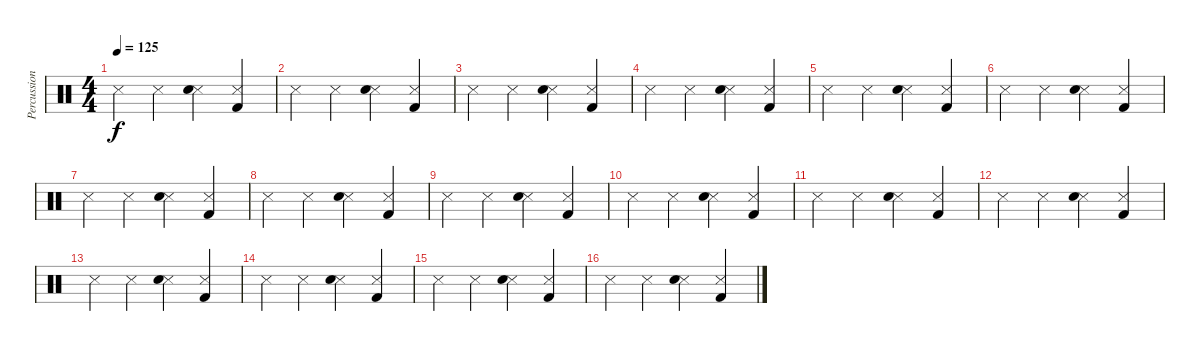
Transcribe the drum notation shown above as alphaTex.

\track ("Percussion" "Percussion") {instrument percussion}
\staff {score}
\articulation defaults
\ts (4 4)
\tempo 125
\clef neutral
\ks c "Snare (side stick) 3".4{dy f} "Snare (side stick) 3".4
("Snare (side stick) 3" "Electric Snare (hit)").4 ("Snare (side stick) 3" "Kick (hit) 2").4 |
"Snare (side stick) 3".4 "Snare (side stick) 3".4 ("Snare (side stick) 3" "Electric Snare (hit)").4 ("Snare (side stick) 3" "Kick (hit) 2").4 |
"Snare (side stick) 3".4 "Snare (side stick) 3".4 ("Snare (side stick) 3" "Electric Snare (hit)").4 ("Snare (side stick) 3" "Kick (hit) 2").4 |
"Snare (side stick) 3".4 "Snare (side stick) 3".4 ("Snare (side stick) 3" "Electric Snare (hit)").4 ("Snare (side stick) 3" "Kick (hit) 2").4 |
"Snare (side stick) 3".4 "Snare (side stick) 3".4 ("Snare (side stick) 3" "Electric Snare (hit)").4 ("Snare (side stick) 3" "Kick (hit) 2").4 |
"Snare (side stick) 3".4 "Snare (side stick) 3".4 ("Snare (side stick) 3" "Electric Snare (hit)").4 ("Snare (side stick) 3" "Kick (hit) 2").4 |
"Snare (side stick) 3".4 "Snare (side stick) 3".4 ("Snare (side stick) 3" "Electric Snare (hit)").4 ("Snare (side stick) 3" "Kick (hit) 2").4 |
"Snare (side stick) 3".4 "Snare (side stick) 3".4 ("Snare (side stick) 3" "Electric Snare (hit)").4 ("Snare (side stick) 3" "Kick (hit) 2").4 |
"Snare (side stick) 3".4 "Snare (side stick) 3".4 ("Snare (side stick) 3" "Electric Snare (hit)").4 ("Snare (side stick) 3" "Kick (hit) 2").4 |
"Snare (side stick) 3".4 "Snare (side stick) 3".4 ("Snare (side stick) 3" "Electric Snare (hit)").4 ("Snare (side stick) 3" "Kick (hit) 2").4 |
"Snare (side stick) 3".4 "Snare (side stick) 3".4 ("Snare (side stick) 3" "Electric Snare (hit)").4 ("Snare (side stick) 3" "Kick (hit) 2").4 |
"Snare (side stick) 3".4 "Snare (side stick) 3".4 ("Snare (side stick) 3" "Electric Snare (hit)").4 ("Snare (side stick) 3" "Kick (hit) 2").4 |
"Snare (side stick) 3".4 "Snare (side stick) 3".4 ("Snare (side stick) 3" "Electric Snare (hit)").4 ("Snare (side stick) 3" "Kick (hit) 2").4 |
"Snare (side stick) 3".4 "Snare (side stick) 3".4 ("Snare (side stick) 3" "Electric Snare (hit)").4 ("Snare (side stick) 3" "Kick (hit) 2").4 |
"Snare (side stick) 3".4 "Snare (side stick) 3".4 ("Snare (side stick) 3" "Electric Snare (hit)").4 ("Snare (side stick) 3" "Kick (hit) 2").4 |
"Snare (side stick) 3".4 "Snare (side stick) 3".4 ("Snare (side stick) 3" "Electric Snare (hit)").4 ("Snare (side stick) 3" "Kick (hit) 2").4
